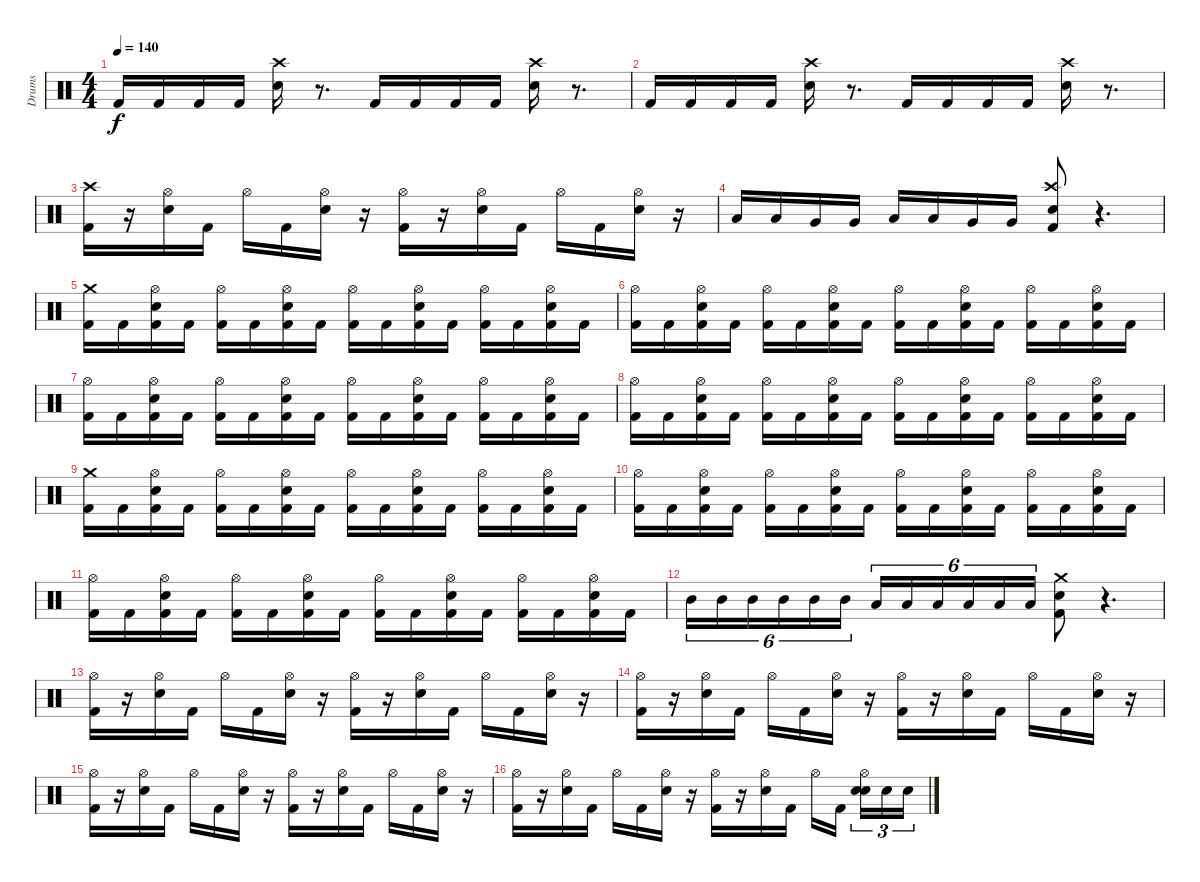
\track ("Drums" "Drums") {instrument percussion}
\staff {score}
\articulation defaults
\ts (4 4)
\tempo 140
\clef neutral
\ks c "Kick (hit) 2".16{dy f} "Kick (hit) 2".16 "Kick (hit) 2".16 "Kick (hit) 2".16
("Crash high (hit)" "Electric Snare (hit)").16 r.8{d} "Kick (hit) 2".16 "Kick (hit) 2".16 "Kick (hit) 2".16 "Kick (hit) 2".16 ("Crash high (hit)" "Electric Snare (hit)").16 r.8{d} |
"Kick (hit) 2".16 "Kick (hit) 2".16 "Kick (hit) 2".16 "Kick (hit) 2".16 ("Electric Snare (hit)" "Crash high (hit)").16 r.8{d} "Kick (hit) 2".16 "Kick (hit) 2".16 "Kick (hit) 2".16 "Kick (hit) 2".16 ("Crash high (hit)" "Electric Snare (hit)").16 r.8{d} |
("Crash high (hit)" "Kick (hit) 2").16 r.16 ("Hi-Hat (open)" "Electric Snare (hit)").16 "Kick (hit) 2".16 "Hi-Hat (open)".16 "Kick (hit) 2".16 ("Hi-Hat (open)" "Electric Snare (hit)").16 r.16 ("Hi-Hat (open)" "Kick (hit) 2").16 r.16 ("Electric Snare (hit)" "Hi-Hat (open)").16 "Kick (hit) 2".16 "Hi-Hat (open)".16 "Kick (hit) 2".16 ("Electric Snare (hit)" "Hi-Hat (open)").16 r.16 |
"Low Floor Tom (hit)".16 "Low Floor Tom (hit)".16 "Very Low Tom (hit)".16 "Very Low Tom (hit)".16 "Low Tom (hit)".16 "Low Tom (hit)".16 "Very Low Tom (hit)".16 "Very Low Tom (hit)".16 ("Electric Snare (hit)" "Kick (hit) 2" "Crash high (hit)").8 r.4{d} |
("Kick (hit) 2" "Crash medium (hit)").16 "Kick (hit) 2".16 ("Electric Snare (hit)" "Hi-Hat (open)" "Kick (hit) 2").16 "Kick (hit) 2".16 ("Kick (hit) 2" "Hi-Hat (open)").16 "Kick (hit) 2".16 ("Electric Snare (hit)" "Hi-Hat (open)" "Kick (hit) 2").16 "Kick (hit) 2".16 ("Hi-Hat (open)" "Kick (hit) 2").16 "Kick (hit) 2".16 ("Electric Snare (hit)" "Kick (hit) 2" "Hi-Hat (open)").16 "Kick (hit) 2".16 ("Kick (hit) 2" "Hi-Hat (open)").16 "Kick (hit) 2".16 ("Electric Snare (hit)" "Hi-Hat (open)" "Kick (hit) 2").16 "Kick (hit) 2".16 |
("Kick (hit) 2" "Hi-Hat (open)").16 "Kick (hit) 2".16 ("Electric Snare (hit)" "Hi-Hat (open)" "Kick (hit) 2").16 "Kick (hit) 2".16 ("Kick (hit) 2" "Hi-Hat (open)").16 "Kick (hit) 2".16 ("Kick (hit) 2" "Electric Snare (hit)" "Hi-Hat (open)").16 "Kick (hit) 2".16 ("Kick (hit) 2" "Hi-Hat (open)").16 "Kick (hit) 2".16 ("Hi-Hat (open)" "Kick (hit) 2" "Electric Snare (hit)").16 "Kick (hit) 2".16 ("Kick (hit) 2" "Hi-Hat (open)").16 "Kick (hit) 2".16 ("Electric Snare (hit)" "Hi-Hat (open)" "Kick (hit) 2").16 "Kick (hit) 2".16 |
("Hi-Hat (open)" "Kick (hit) 2").16 "Kick (hit) 2".16 ("Hi-Hat (open)" "Electric Snare (hit)" "Kick (hit) 2").16 "Kick (hit) 2".16 ("Kick (hit) 2" "Hi-Hat (open)").16 "Kick (hit) 2".16 ("Hi-Hat (open)" "Kick (hit) 2" "Electric Snare (hit)").16 "Kick (hit) 2".16 ("Kick (hit) 2" "Hi-Hat (open)").16 "Kick (hit) 2".16 ("Electric Snare (hit)" "Hi-Hat (open)" "Kick (hit) 2").16 "Kick (hit) 2".16 ("Kick (hit) 2" "Hi-Hat (open)").16 "Kick (hit) 2".16 ("Kick (hit) 2" "Hi-Hat (open)" "Electric Snare (hit)").16 "Kick (hit) 2".16 |
("Kick (hit) 2" "Hi-Hat (open)").16 "Kick (hit) 2".16 ("Electric Snare (hit)" "Hi-Hat (open)" "Kick (hit) 2").16 "Kick (hit) 2".16 ("Hi-Hat (open)" "Kick (hit) 2").16 "Kick (hit) 2".16 ("Electric Snare (hit)" "Kick (hit) 2" "Hi-Hat (open)").16 "Kick (hit) 2".16 ("Hi-Hat (open)" "Kick (hit) 2").16 "Kick (hit) 2".16 ("Hi-Hat (open)" "Electric Snare (hit)" "Kick (hit) 2").16 "Kick (hit) 2".16 ("Kick (hit) 2" "Hi-Hat (open)").16 "Kick (hit) 2".16 ("Electric Snare (hit)" "Hi-Hat (open)" "Kick (hit) 2").16 "Kick (hit) 2".16 |
("Crash medium (hit)" "Kick (hit) 2").16 "Kick (hit) 2".16 ("Electric Snare (hit)" "Kick (hit) 2" "Hi-Hat (open)").16 "Kick (hit) 2".16 ("Hi-Hat (open)" "Kick (hit) 2").16 "Kick (hit) 2".16 ("Kick (hit) 2" "Electric Snare (hit)" "Hi-Hat (open)").16 "Kick (hit) 2".16 ("Hi-Hat (open)" "Kick (hit) 2").16 "Kick (hit) 2".16 ("Electric Snare (hit)" "Kick (hit) 2" "Hi-Hat (open)").16 "Kick (hit) 2".16 ("Hi-Hat (open)" "Kick (hit) 2").16 "Kick (hit) 2".16 ("Hi-Hat (open)" "Kick (hit) 2" "Electric Snare (hit)").16 "Kick (hit) 2".16 |
("Kick (hit) 2" "Hi-Hat (open)").16 "Kick (hit) 2".16 ("Hi-Hat (open)" "Electric Snare (hit)" "Kick (hit) 2").16 "Kick (hit) 2".16 ("Hi-Hat (open)" "Kick (hit) 2").16 "Kick (hit) 2".16 ("Electric Snare (hit)" "Kick (hit) 2" "Hi-Hat (open)").16 "Kick (hit) 2".16 ("Hi-Hat (open)" "Kick (hit) 2").16 "Kick (hit) 2".16 ("Hi-Hat (open)" "Kick (hit) 2" "Electric Snare (hit)").16 "Kick (hit) 2".16 ("Kick (hit) 2" "Hi-Hat (open)").16 "Kick (hit) 2".16 ("Hi-Hat (open)" "Kick (hit) 2" "Electric Snare (hit)").16 "Kick (hit) 2".16 |
("Kick (hit) 2" "Hi-Hat (open)").16 "Kick (hit) 2".16 ("Electric Snare (hit)" "Kick (hit) 2" "Hi-Hat (open)").16 "Kick (hit) 2".16 ("Kick (hit) 2" "Hi-Hat (open)").16 "Kick (hit) 2".16 ("Electric Snare (hit)" "Hi-Hat (open)" "Kick (hit) 2").16 "Kick (hit) 2".16 ("Kick (hit) 2" "Hi-Hat (open)").16 "Kick (hit) 2".16 ("Electric Snare (hit)" "Hi-Hat (open)" "Kick (hit) 2").16 "Kick (hit) 2".16 ("Hi-Hat (open)" "Kick (hit) 2").16 "Kick (hit) 2".16 ("Electric Snare (hit)" "Kick (hit) 2" "Hi-Hat (open)").16 "Kick (hit) 2".16 |
"Mid Tom (hit)".16{tu (6 4)} "Mid Tom (hit)".16{tu (6 4)} "Mid Tom (hit)".16{tu (6 4)} "Mid Tom (hit)".16{tu (6 4)} "Mid Tom (hit)".16{tu (6 4)} "Mid Tom (hit)".16{tu (6 4)} "Low Tom (hit)".16{tu (6 4)} "Low Tom (hit)".16{tu (6 4)} "Low Tom (hit)".16{tu (6 4)} "Low Tom (hit)".16{tu (6 4)} "Low Tom (hit)".16{tu (6 4)} "Low Tom (hit)".16{tu (6 4)} ("Crash medium (hit)" "Electric Snare (hit)" "Kick (hit) 2").8 r.4{d} |
("Hi-Hat (open)" "Kick (hit) 2").16 r.16 ("Electric Snare (hit)" "Hi-Hat (open)").16 "Kick (hit) 2".16 "Hi-Hat (open)".16 "Kick (hit) 2".16 ("Hi-Hat (open)" "Electric Snare (hit)").16 r.16 ("Kick (hit) 2" "Hi-Hat (open)").16 r.16 ("Electric Snare (hit)" "Hi-Hat (open)").16 "Kick (hit) 2".16 "Hi-Hat (open)".16 "Kick (hit) 2".16 ("Electric Snare (hit)" "Hi-Hat (open)").16 r.16 |
("Hi-Hat (open)" "Kick (hit) 2").16 r.16 ("Hi-Hat (open)" "Electric Snare (hit)").16 "Kick (hit) 2".16 "Hi-Hat (open)".16 "Kick (hit) 2".16 ("Electric Snare (hit)" "Hi-Hat (open)").16 r.16 ("Kick (hit) 2" "Hi-Hat (open)").16 r.16 ("Electric Snare (hit)" "Hi-Hat (open)").16 "Kick (hit) 2".16 "Hi-Hat (open)".16 "Kick (hit) 2".16 ("Electric Snare (hit)" "Hi-Hat (open)").16 r.16 |
("Hi-Hat (open)" "Kick (hit) 2").16 r.16 ("Hi-Hat (open)" "Electric Snare (hit)").16 "Kick (hit) 2".16 "Hi-Hat (open)".16 "Kick (hit) 2".16 ("Electric Snare (hit)" "Hi-Hat (open)").16 r.16 ("Kick (hit) 2" "Hi-Hat (open)").16 r.16 ("Electric Snare (hit)" "Hi-Hat (open)").16 "Kick (hit) 2".16 "Hi-Hat (open)".16 "Kick (hit) 2".16 ("Electric Snare (hit)" "Hi-Hat (open)").16 r.16 |
("Kick (hit) 2" "Hi-Hat (open)").16 r.16 ("Electric Snare (hit)" "Hi-Hat (open)").16 "Kick (hit) 2".16 "Hi-Hat (open)".16 "Kick (hit) 2".16 ("Hi-Hat (open)" "Electric Snare (hit)").16 r.16 ("Hi-Hat (open)" "Kick (hit) 2").16 r.16 ("Hi-Hat (open)" "Electric Snare (hit)").16 "Kick (hit) 2".16 "Hi-Hat (open)".16 "Kick (hit) 2".16 ("Electric Snare (hit)" "Electric Snare (hit)" "Hi-Hat (open)").16{tu (3 2)} "Electric Snare (hit)".16{tu (3 2)} "Electric Snare (hit)".16{tu (3 2)}
